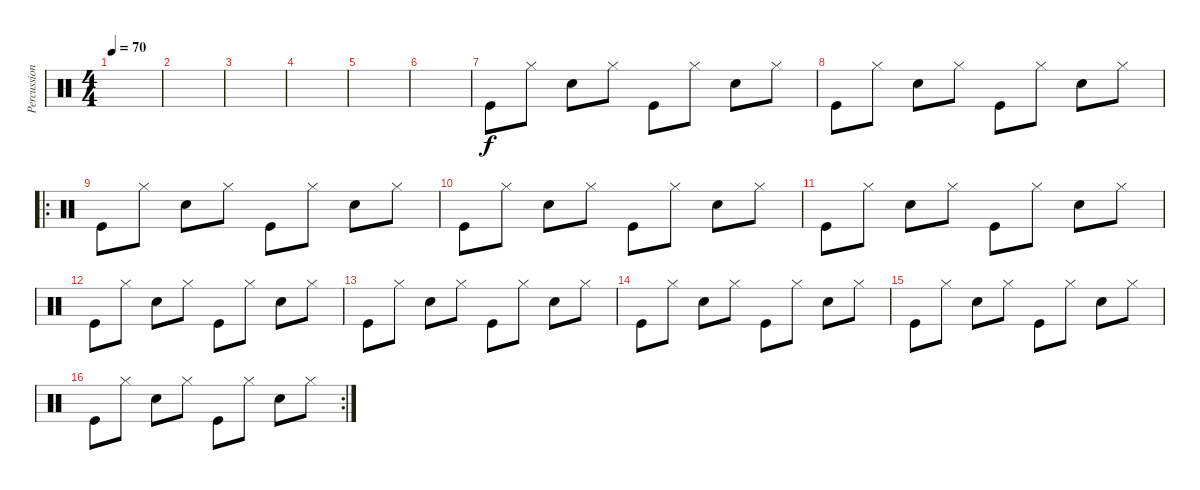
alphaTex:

\track ("Percussions" "Percussion") {instrument percussion}
\staff {score}
\articulation defaults
\ts (4 4)
\tempo 70
\clef neutral
\ks c
|
|
|
|
|
|
"Kick (hit)".8 "Hi-Hat (closed)".8 "Electric Snare (hit)".8 "Hi-Hat (closed)".8 "Kick (hit)".8 "Hi-Hat (closed)".8 "Electric Snare (hit)".8 "Hi-Hat (closed)".8 |
"Kick (hit)".8 "Hi-Hat (closed)".8 "Electric Snare (hit)".8 "Hi-Hat (closed)".8 "Kick (hit)".8 "Hi-Hat (closed)".8 "Electric Snare (hit)".8 "Hi-Hat (closed)".8 |
\ro "Kick (hit)".8 "Hi-Hat (closed)".8 "Electric Snare (hit)".8 "Hi-Hat (closed)".8 "Kick (hit)".8 "Hi-Hat (closed)".8 "Electric Snare (hit)".8 "Hi-Hat (closed)".8
|
"Kick (hit)".8 "Hi-Hat (closed)".8 "Electric Snare (hit)".8 "Hi-Hat (closed)".8 "Kick (hit)".8 "Hi-Hat (closed)".8 "Electric Snare (hit)".8 "Hi-Hat (closed)".8 |
"Kick (hit)".8 "Hi-Hat (closed)".8 "Electric Snare (hit)".8 "Hi-Hat (closed)".8 "Kick (hit)".8 "Hi-Hat (closed)".8 "Electric Snare (hit)".8 "Hi-Hat (closed)".8 |
"Kick (hit)".8 "Hi-Hat (closed)".8 "Electric Snare (hit)".8 "Hi-Hat (closed)".8 "Kick (hit)".8 "Hi-Hat (closed)".8 "Electric Snare (hit)".8 "Hi-Hat (closed)".8 |
"Kick (hit)".8 "Hi-Hat (closed)".8 "Electric Snare (hit)".8 "Hi-Hat (closed)".8 "Kick (hit)".8 "Hi-Hat (closed)".8 "Electric Snare (hit)".8 "Hi-Hat (closed)".8 |
"Kick (hit)".8 "Hi-Hat (closed)".8 "Electric Snare (hit)".8 "Hi-Hat (closed)".8 "Kick (hit)".8 "Hi-Hat (closed)".8 "Electric Snare (hit)".8 "Hi-Hat (closed)".8 |
"Kick (hit)".8 "Hi-Hat (closed)".8 "Electric Snare (hit)".8 "Hi-Hat (closed)".8 "Kick (hit)".8 "Hi-Hat (closed)".8 "Electric Snare (hit)".8 "Hi-Hat (closed)".8 |
\rc 2 "Kick (hit)".8 "Hi-Hat (closed)".8 "Electric Snare (hit)".8 "Hi-Hat (closed)".8 "Kick (hit)".8 "Hi-Hat (closed)".8 "Electric Snare (hit)".8 "Hi-Hat (closed)".8
